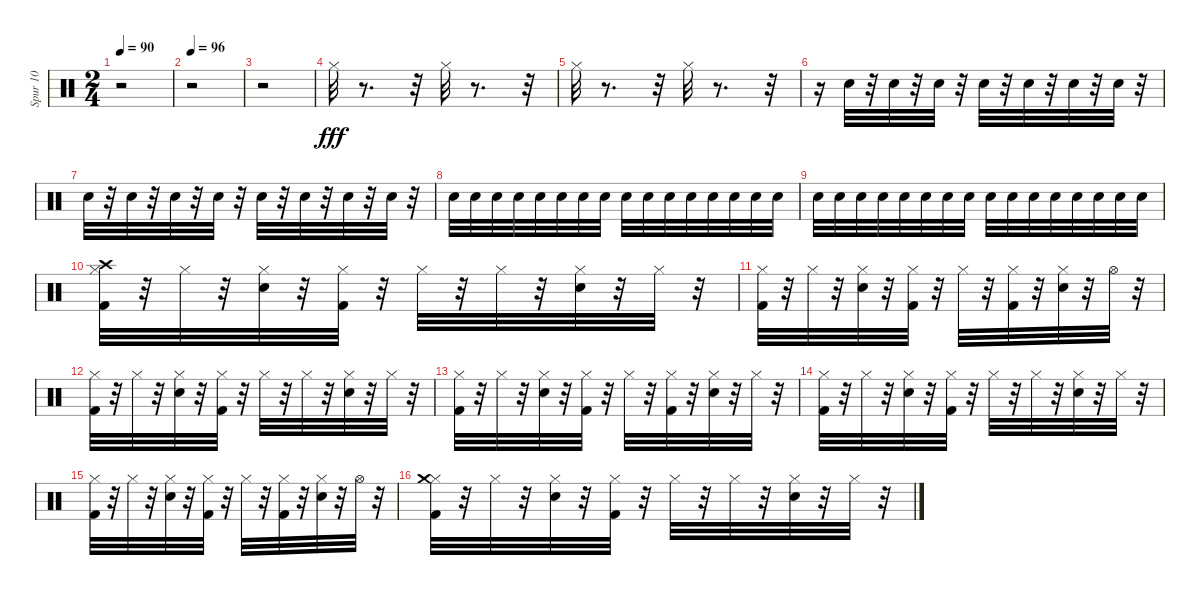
\track ("Spur 10" "Spur 10") {instrument percussion}
\staff {score}
\articulation defaults
\ts (2 4)
\tempo 90
\clef neutral
\ks c
r.2{dy fff} |
\tempo 96
r.2 |
r.2 |
"Hi-Hat (closed)".32 r.8{d} r.32 "Hi-Hat (closed)".32 r.8{d} r.32 |
"Hi-Hat (closed)".32 r.8{d} r.32 "Hi-Hat (closed)".32 r.8{d} r.32 |
r.16 "Electric Snare (hit)".32 r.32 "Electric Snare (hit)".32 r.32 "Electric Snare (hit)".32 r.32 "Electric Snare (hit)".32 r.32 "Electric Snare (hit)".32 r.32 "Electric Snare (hit)".32 r.32 "Electric Snare (hit)".32 r.32 |
"Electric Snare (hit)".32 r.32 "Electric Snare (hit)".32 r.32 "Electric Snare (hit)".32 r.32 "Electric Snare (hit)".32 r.32 "Electric Snare (hit)".32 r.32 "Electric Snare (hit)".32 r.32 "Electric Snare (hit)".32 r.32 "Electric Snare (hit)".32 r.32 |
"Electric Snare (hit)".32 "Electric Snare (hit)".32 "Electric Snare (hit)".32 "Electric Snare (hit)".32 "Electric Snare (hit)".32 "Electric Snare (hit)".32 "Electric Snare (hit)".32 "Electric Snare (hit)".32 "Electric Snare (hit)".32 "Electric Snare (hit)".32 "Electric Snare (hit)".32 "Electric Snare (hit)".32 "Electric Snare (hit)".32 "Electric Snare (hit)".32 "Electric Snare (hit)".32 "Electric Snare (hit)".32 |
"Electric Snare (hit)".32 "Electric Snare (hit)".32 "Electric Snare (hit)".32 "Electric Snare (hit)".32 "Electric Snare (hit)".32 "Electric Snare (hit)".32 "Electric Snare (hit)".32 "Electric Snare (hit)".32 "Electric Snare (hit)".32 "Electric Snare (hit)".32 "Electric Snare (hit)".32 "Electric Snare (hit)".32 "Electric Snare (hit)".32 "Electric Snare (hit)".32 "Electric Snare (hit)".32 "Electric Snare (hit)".32 |
("Hi-Hat (closed)" "Crash high (hit)" "Kick (hit) 2").32 r.32 "Hi-Hat (closed)".32 r.32 ("Hi-Hat (closed)" "Electric Snare (hit)").32 r.32 ("Hi-Hat (closed)" "Kick (hit) 2").32 r.32 "Hi-Hat (closed)".32 r.32 "Hi-Hat (closed)".32 r.32 ("Hi-Hat (closed)" "Electric Snare (hit)").32 r.32 "Hi-Hat (closed)".32 r.32 |
("Hi-Hat (closed)" "Kick (hit) 2").32 r.32 "Hi-Hat (closed)".32 r.32 ("Hi-Hat (closed)" "Electric Snare (hit)").32 r.32 ("Hi-Hat (closed)" "Kick (hit) 2").32 r.32 "Hi-Hat (closed)".32 r.32 ("Hi-Hat (closed)" "Kick (hit) 2").32 r.32 ("Hi-Hat (closed)" "Electric Snare (hit)").32 r.32 "Hi-Hat (open)".32 r.32 |
("Hi-Hat (closed)" "Kick (hit) 2").32 r.32 "Hi-Hat (closed)".32 r.32 ("Hi-Hat (closed)" "Electric Snare (hit)").32 r.32 ("Hi-Hat (closed)" "Kick (hit) 2").32 r.32 "Hi-Hat (closed)".32 r.32 "Hi-Hat (closed)".32 r.32 ("Hi-Hat (closed)" "Electric Snare (hit)").32 r.32 "Hi-Hat (closed)".32 r.32 |
("Hi-Hat (closed)" "Kick (hit) 2").32 r.32 "Hi-Hat (closed)".32 r.32 ("Hi-Hat (closed)" "Electric Snare (hit)").32 r.32 ("Hi-Hat (closed)" "Kick (hit) 2").32 r.32 "Hi-Hat (closed)".32 r.32 ("Hi-Hat (closed)" "Kick (hit) 2").32 r.32 ("Hi-Hat (closed)" "Electric Snare (hit)").32 r.32 "Hi-Hat (closed)".32 r.32 |
("Hi-Hat (closed)" "Kick (hit) 2").32 r.32 "Hi-Hat (closed)".32 r.32 ("Hi-Hat (closed)" "Electric Snare (hit)").32 r.32 ("Hi-Hat (closed)" "Kick (hit) 2").32 r.32 "Hi-Hat (closed)".32 r.32 "Hi-Hat (closed)".32 r.32 ("Hi-Hat (closed)" "Electric Snare (hit)").32 r.32 "Hi-Hat (closed)".32 r.32 |
("Hi-Hat (closed)" "Kick (hit) 2").32 r.32 "Hi-Hat (closed)".32 r.32 ("Hi-Hat (closed)" "Electric Snare (hit)").32 r.32 ("Hi-Hat (closed)" "Kick (hit) 2").32 r.32 "Hi-Hat (closed)".32 r.32 ("Hi-Hat (closed)" "Kick (hit) 2").32 r.32 ("Hi-Hat (closed)" "Electric Snare (hit)").32 r.32 "Hi-Hat (open)".32 r.32 |
("Hi-Hat (closed)" "Crash medium (hit)" "Kick (hit) 2").32 r.32 "Hi-Hat (closed)".32 r.32 ("Hi-Hat (closed)" "Electric Snare (hit)").32 r.32 ("Hi-Hat (closed)" "Kick (hit) 2").32 r.32 "Hi-Hat (closed)".32 r.32 "Hi-Hat (closed)".32 r.32 ("Hi-Hat (closed)" "Electric Snare (hit)").32 r.32 "Hi-Hat (closed)".32 r.32
